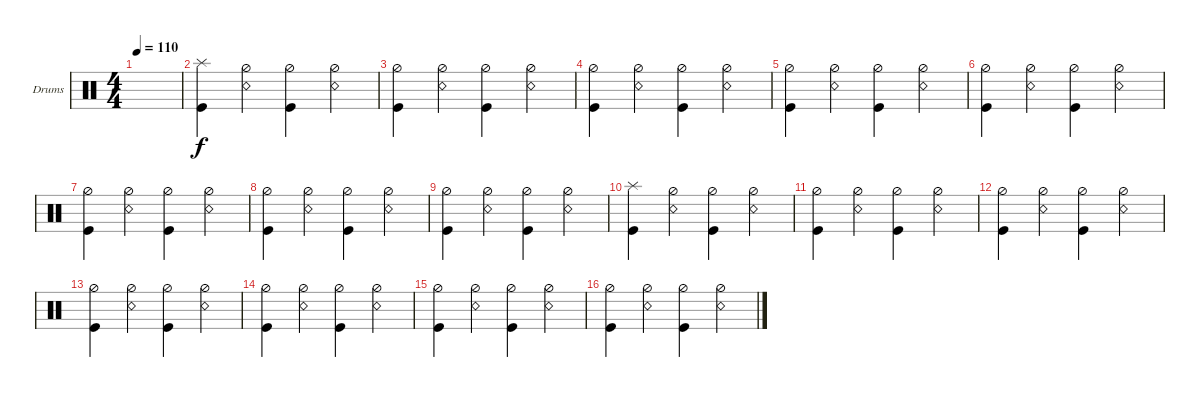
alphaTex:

\bracketExtendMode groupsimilarinstruments
\firstSystemTrackNameOrientation horizontal
\otherSystemsTrackNameOrientation horizontal
\track ("Drumkit" "Drums") {instrument percussion}
\staff {score}
\articulation defaults
\ts (4 4)
\tempo 110
\clef neutral
\ks c
|
("Kick (hit)" "Splash (hit)").4 ("Snare (rim shot)" "Hi-Hat (half)").4 ("Kick (hit)" "Hi-Hat (half)").4 ("Snare (rim shot)" "Hi-Hat (half)").4 |
("Kick (hit)" "Hi-Hat (half)").4 ("Snare (rim shot)" "Hi-Hat (half)").4 ("Kick (hit)" "Hi-Hat (half)").4 ("Snare (rim shot)" "Hi-Hat (half)").4 |
("Kick (hit)" "Hi-Hat (half)").4 ("Snare (rim shot)" "Hi-Hat (half)").4 ("Kick (hit)" "Hi-Hat (half)").4 ("Snare (rim shot)" "Hi-Hat (half)").4 |
("Kick (hit)" "Hi-Hat (half)").4 ("Snare (rim shot)" "Hi-Hat (half)").4 ("Kick (hit)" "Hi-Hat (half)").4 ("Snare (rim shot)" "Hi-Hat (half)").4 |
("Kick (hit)" "Hi-Hat (half)").4 ("Snare (rim shot)" "Hi-Hat (half)").4 ("Kick (hit)" "Hi-Hat (half)").4 ("Snare (rim shot)" "Hi-Hat (half)").4 |
("Kick (hit)" "Hi-Hat (half)").4 ("Snare (rim shot)" "Hi-Hat (half)").4 ("Kick (hit)" "Hi-Hat (half)").4 ("Snare (rim shot)" "Hi-Hat (half)").4 |
("Kick (hit)" "Hi-Hat (half)").4 ("Snare (rim shot)" "Hi-Hat (half)").4 ("Kick (hit)" "Hi-Hat (half)").4 ("Snare (rim shot)" "Hi-Hat (half)").4 |
("Kick (hit)" "Hi-Hat (half)").4 ("Snare (rim shot)" "Hi-Hat (half)").4 ("Kick (hit)" "Hi-Hat (half)").4 ("Snare (rim shot)" "Hi-Hat (half)").4 |
("Kick (hit)" "Splash (hit)").4 ("Snare (rim shot)" "Hi-Hat (half)").4 ("Kick (hit)" "Hi-Hat (half)").4 ("Snare (rim shot)" "Hi-Hat (half)").4 |
("Kick (hit)" "Hi-Hat (half)").4 ("Snare (rim shot)" "Hi-Hat (half)").4 ("Kick (hit)" "Hi-Hat (half)").4 ("Snare (rim shot)" "Hi-Hat (half)").4 |
("Kick (hit)" "Hi-Hat (half)").4 ("Snare (rim shot)" "Hi-Hat (half)").4 ("Kick (hit)" "Hi-Hat (half)").4 ("Snare (rim shot)" "Hi-Hat (half)").4 |
("Kick (hit)" "Hi-Hat (half)").4 ("Snare (rim shot)" "Hi-Hat (half)").4 ("Kick (hit)" "Hi-Hat (half)").4 ("Snare (rim shot)" "Hi-Hat (half)").4 |
("Kick (hit)" "Hi-Hat (half)").4 ("Snare (rim shot)" "Hi-Hat (half)").4 ("Kick (hit)" "Hi-Hat (half)").4 ("Snare (rim shot)" "Hi-Hat (half)").4 |
("Kick (hit)" "Hi-Hat (half)").4 ("Snare (rim shot)" "Hi-Hat (half)").4 ("Kick (hit)" "Hi-Hat (half)").4 ("Snare (rim shot)" "Hi-Hat (half)").4 |
("Kick (hit)" "Hi-Hat (half)").4 ("Snare (rim shot)" "Hi-Hat (half)").4 ("Kick (hit)" "Hi-Hat (half)").4 ("Snare (rim shot)" "Hi-Hat (half)").4
